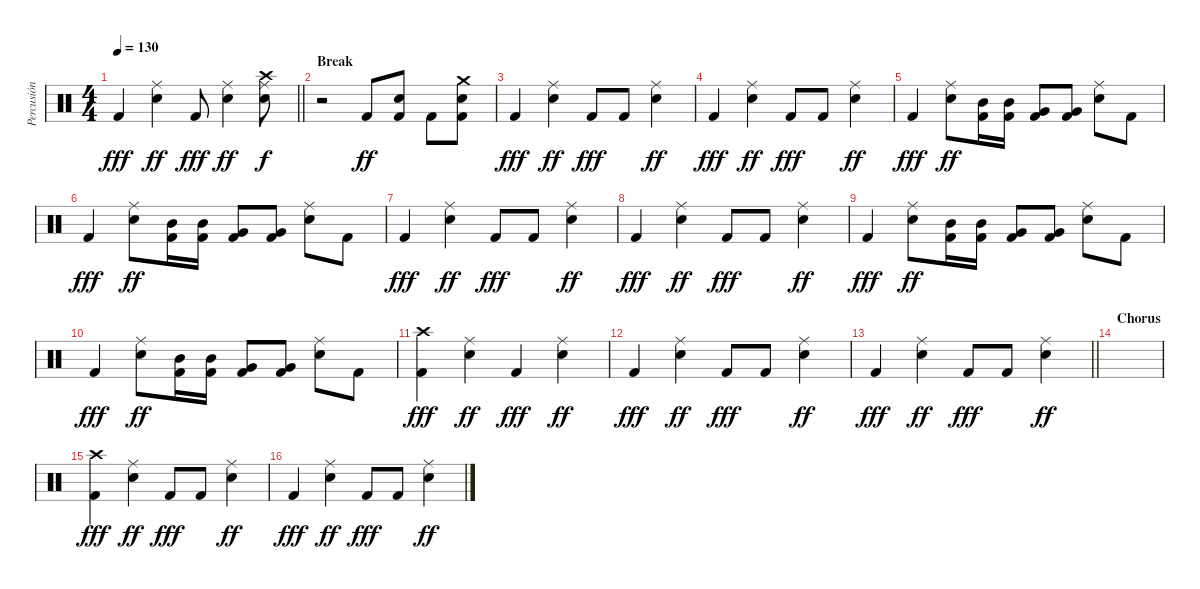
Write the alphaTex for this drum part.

\track ("Percusión" "Percusión") {instrument percussion}
\staff {score}
\articulation defaults
\ts (4 4)
\tempo 130
\clef neutral
\barLineRight lightlight
\ks c "Kick (hit) 2".4{dy fff}
("Snare (hit) 2" "Ride (middle)").4{dy ff} "Kick (hit) 2".8{dy fff} ("Snare (hit) 2" "Ride (middle)").4{dy ff} ("Crash high (hit)" "Snare (hit) 2" "Ride (middle)").8{dy f} |
\section ("" "Break")
r.2 "Kick (hit) 2".8{dy ff} ("Kick (hit) 2" "Snare (hit) 2").8 "Kick (hit) 2".8 ("Kick (hit) 2" "Snare (hit) 2" "Crash medium (hit)").8 |
"Kick (hit) 2".4{dy fff} ("Snare (hit) 2" "Ride (middle)").4{dy ff} "Kick (hit) 2".8{dy fff} "Kick (hit) 2".8 ("Snare (hit) 2" "Ride (middle)").4{dy ff} |
"Kick (hit) 2".4{dy fff} ("Snare (hit) 2" "Ride (middle)").4{dy ff} "Kick (hit) 2".8{dy fff} "Kick (hit) 2".8 ("Snare (hit) 2" "Ride (middle)").4{dy ff} |
"Kick (hit) 2".4{dy fff} ("Snare (hit) 2" "Ride (middle)").8{dy ff} ("Kick (hit) 2" "Mid Tom (hit)").16 ("Kick (hit) 2" "Mid Tom (hit)").16 ("Kick (hit) 2" "Very Low Tom (hit)").8 ("Kick (hit) 2" "Very Low Tom (hit)").8 ("Snare (hit) 2" "Ride (middle)").8 "Kick (hit) 2".8 |
"Kick (hit) 2".4{dy fff} ("Snare (hit) 2" "Ride (middle)").8{dy ff} ("Kick (hit) 2" "Mid Tom (hit)").16 ("Kick (hit) 2" "Mid Tom (hit)").16 ("Kick (hit) 2" "Very Low Tom (hit)").8 ("Kick (hit) 2" "Very Low Tom (hit)").8 ("Snare (hit) 2" "Ride (middle)").8 "Kick (hit) 2".8 |
"Kick (hit) 2".4{dy fff} ("Snare (hit) 2" "Ride (middle)").4{dy ff} "Kick (hit) 2".8{dy fff} "Kick (hit) 2".8 ("Snare (hit) 2" "Ride (middle)").4{dy ff} |
"Kick (hit) 2".4{dy fff} ("Snare (hit) 2" "Ride (middle)").4{dy ff} "Kick (hit) 2".8{dy fff} "Kick (hit) 2".8 ("Snare (hit) 2" "Ride (middle)").4{dy ff} |
"Kick (hit) 2".4{dy fff} ("Snare (hit) 2" "Ride (middle)").8{dy ff} ("Kick (hit) 2" "Mid Tom (hit)").16 ("Kick (hit) 2" "Mid Tom (hit)").16 ("Kick (hit) 2" "Very Low Tom (hit)").8 ("Kick (hit) 2" "Very Low Tom (hit)").8 ("Snare (hit) 2" "Ride (middle)").8 "Kick (hit) 2".8 |
"Kick (hit) 2".4{dy fff} ("Snare (hit) 2" "Ride (middle)").8{dy ff} ("Kick (hit) 2" "Mid Tom (hit)").16 ("Kick (hit) 2" "Mid Tom (hit)").16 ("Kick (hit) 2" "Very Low Tom (hit)").8 ("Kick (hit) 2" "Very Low Tom (hit)").8 ("Snare (hit) 2" "Ride (middle)").8 "Kick (hit) 2".8 |
("Kick (hit) 2" "Crash high (hit)").4{dy fff} ("Snare (hit) 2" "Ride (middle)").4{dy ff} "Kick (hit) 2".4{dy fff} ("Snare (hit) 2" "Ride (middle)").4{dy ff} |
"Kick (hit) 2".4{dy fff} ("Snare (hit) 2" "Ride (middle)").4{dy ff} "Kick (hit) 2".8{dy fff} "Kick (hit) 2".8 ("Snare (hit) 2" "Ride (middle)").4{dy ff} |
\barLineRight lightlight "Kick (hit) 2".4{dy fff}
("Snare (hit) 2" "Ride (middle)").4{dy ff} "Kick (hit) 2".8{dy fff} "Kick (hit) 2".8 ("Snare (hit) 2" "Ride (middle)").4{dy ff} |
\section ("" "Chorus")
|
("Kick (hit) 2" "Crash high (hit)").4{dy fff} ("Snare (hit) 2" "Ride (middle)").4{dy ff} "Kick (hit) 2".8{dy fff} "Kick (hit) 2".8 ("Snare (hit) 2" "Ride (middle)").4{dy ff} |
"Kick (hit) 2".4{dy fff} ("Snare (hit) 2" "Ride (middle)").4{dy ff} "Kick (hit) 2".8{dy fff} "Kick (hit) 2".8 ("Snare (hit) 2" "Ride (middle)").4{dy ff}
